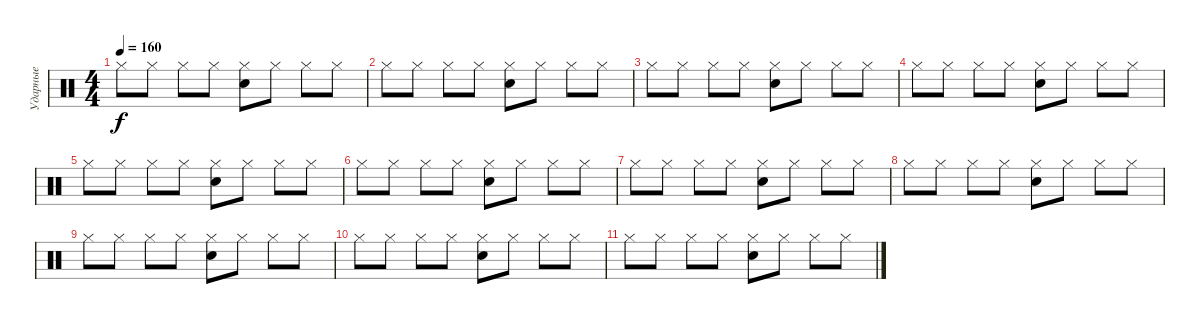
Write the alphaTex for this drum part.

\track ("Ударные" "Ударные") {instrument percussion}
\staff {score}
\articulation defaults
\ts (4 4)
\tempo 160
\clef neutral
\ks c "Hi-Hat (closed)".8{dy f} "Hi-Hat (closed)".8 "Hi-Hat (closed)".8 "Hi-Hat (closed)".8
("Hi-Hat (closed)" "Electric Snare (hit)").8 "Hi-Hat (closed)".8 "Hi-Hat (closed)".8 "Hi-Hat (closed)".8 |
"Hi-Hat (closed)".8 "Hi-Hat (closed)".8 "Hi-Hat (closed)".8 "Hi-Hat (closed)".8 ("Hi-Hat (closed)" "Electric Snare (hit)").8 "Hi-Hat (closed)".8 "Hi-Hat (closed)".8 "Hi-Hat (closed)".8 |
"Hi-Hat (closed)".8 "Hi-Hat (closed)".8 "Hi-Hat (closed)".8 "Hi-Hat (closed)".8 ("Hi-Hat (closed)" "Electric Snare (hit)").8 "Hi-Hat (closed)".8 "Hi-Hat (closed)".8 "Hi-Hat (closed)".8 |
"Hi-Hat (closed)".8 "Hi-Hat (closed)".8 "Hi-Hat (closed)".8 "Hi-Hat (closed)".8 ("Hi-Hat (closed)" "Electric Snare (hit)").8 "Hi-Hat (closed)".8 "Hi-Hat (closed)".8 "Hi-Hat (closed)".8 |
"Hi-Hat (closed)".8 "Hi-Hat (closed)".8 "Hi-Hat (closed)".8 "Hi-Hat (closed)".8 ("Hi-Hat (closed)" "Electric Snare (hit)").8 "Hi-Hat (closed)".8 "Hi-Hat (closed)".8 "Hi-Hat (closed)".8 |
"Hi-Hat (closed)".8 "Hi-Hat (closed)".8 "Hi-Hat (closed)".8 "Hi-Hat (closed)".8 ("Hi-Hat (closed)" "Electric Snare (hit)").8 "Hi-Hat (closed)".8 "Hi-Hat (closed)".8 "Hi-Hat (closed)".8 |
"Hi-Hat (closed)".8 "Hi-Hat (closed)".8 "Hi-Hat (closed)".8 "Hi-Hat (closed)".8 ("Hi-Hat (closed)" "Electric Snare (hit)").8 "Hi-Hat (closed)".8 "Hi-Hat (closed)".8 "Hi-Hat (closed)".8 |
"Hi-Hat (closed)".8 "Hi-Hat (closed)".8 "Hi-Hat (closed)".8 "Hi-Hat (closed)".8 ("Hi-Hat (closed)" "Electric Snare (hit)").8 "Hi-Hat (closed)".8 "Hi-Hat (closed)".8 "Hi-Hat (closed)".8 |
"Hi-Hat (closed)".8 "Hi-Hat (closed)".8 "Hi-Hat (closed)".8 "Hi-Hat (closed)".8 ("Hi-Hat (closed)" "Electric Snare (hit)").8 "Hi-Hat (closed)".8 "Hi-Hat (closed)".8 "Hi-Hat (closed)".8 |
"Hi-Hat (closed)".8 "Hi-Hat (closed)".8 "Hi-Hat (closed)".8 "Hi-Hat (closed)".8 ("Hi-Hat (closed)" "Electric Snare (hit)").8 "Hi-Hat (closed)".8 "Hi-Hat (closed)".8 "Hi-Hat (closed)".8 |
"Hi-Hat (closed)".8 "Hi-Hat (closed)".8 "Hi-Hat (closed)".8 "Hi-Hat (closed)".8 ("Hi-Hat (closed)" "Electric Snare (hit)").8 "Hi-Hat (closed)".8 "Hi-Hat (closed)".8 "Hi-Hat (closed)".8
